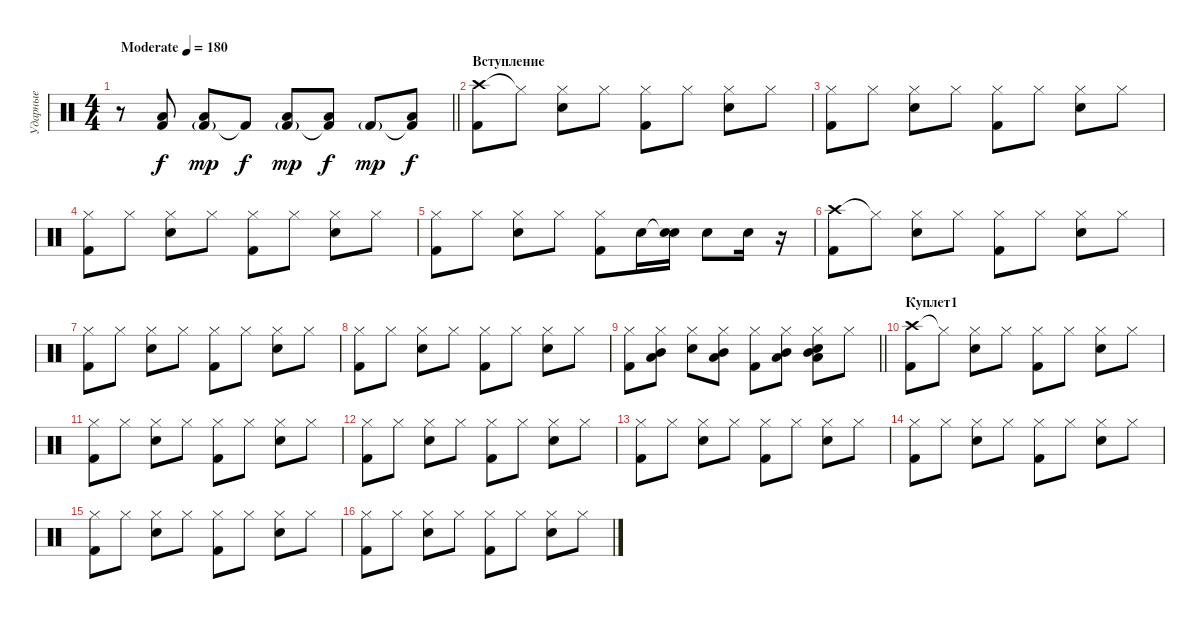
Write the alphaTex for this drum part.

\track ("Ударные" "Ударные") {instrument percussion}
\staff {score}
\articulation defaults
\ts (4 4)
\tempo (180 "Moderate")
\clef neutral
\barLineRight lightlight
\ks c
r.8{dy f} ("Kick (hit) 2" "Low Tom (hit)").8 ("Kick (hit) 2"{g} "Low Tom (hit)").8{dy mp} "Kick (hit) 2"{t}.8{dy f} ("Kick (hit) 2"{g} "Low Tom (hit)").8{dy mp} ("Kick (hit) 2"{t} "Low Tom (hit)").8{dy f} "Kick (hit) 2"{g}.8{dy mp} ("Kick (hit) 2"{t} "Low Tom (hit)").8{dy f} |
\section ("" "Вступление")
("Crash high (hit)" "Kick (hit) 2").8 "Hi-Hat (closed)"{t}.8 ("Hi-Hat (closed)" "Electric Snare (hit)").8 "Hi-Hat (closed)".8 ("Hi-Hat (closed)" "Kick (hit) 2").8 "Hi-Hat (closed)".8 ("Hi-Hat (closed)" "Electric Snare (hit)").8 "Hi-Hat (closed)".8 |
("Hi-Hat (closed)" "Kick (hit) 2").8 "Hi-Hat (closed)".8 ("Hi-Hat (closed)" "Electric Snare (hit)").8 "Hi-Hat (closed)".8 ("Hi-Hat (closed)" "Kick (hit) 2").8 "Hi-Hat (closed)".8 ("Hi-Hat (closed)" "Electric Snare (hit)").8 "Hi-Hat (closed)".8 |
("Hi-Hat (closed)" "Kick (hit) 2").8 "Hi-Hat (closed)".8 ("Hi-Hat (closed)" "Electric Snare (hit)").8 "Hi-Hat (closed)".8 ("Hi-Hat (closed)" "Kick (hit) 2").8 "Hi-Hat (closed)".8 ("Hi-Hat (closed)" "Electric Snare (hit)").8 "Hi-Hat (closed)".8 |
("Hi-Hat (closed)" "Kick (hit) 2").8 "Hi-Hat (closed)".8 ("Hi-Hat (closed)" "Electric Snare (hit)").8 "Hi-Hat (closed)".8 ("Hi-Hat (closed)" "Kick (hit) 2").8 "Electric Snare (hit)".16 ("Snare (hit)"{t} "Electric Snare (hit)").16 "Electric Snare (hit)".8 "Electric Snare (hit)".16 r.16 |
("Crash high (hit)" "Kick (hit) 2").8 "Hi-Hat (closed)"{t}.8 ("Hi-Hat (closed)" "Electric Snare (hit)").8 "Hi-Hat (closed)".8 ("Hi-Hat (closed)" "Kick (hit) 2").8 "Hi-Hat (closed)".8 ("Hi-Hat (closed)" "Electric Snare (hit)").8 "Hi-Hat (closed)".8 |
("Hi-Hat (closed)" "Kick (hit) 2").8 "Hi-Hat (closed)".8 ("Hi-Hat (closed)" "Electric Snare (hit)").8 "Hi-Hat (closed)".8 ("Hi-Hat (closed)" "Kick (hit) 2").8 "Hi-Hat (closed)".8 ("Hi-Hat (closed)" "Electric Snare (hit)").8 "Hi-Hat (closed)".8 |
("Hi-Hat (closed)" "Kick (hit) 2").8 "Hi-Hat (closed)".8 ("Hi-Hat (closed)" "Electric Snare (hit)").8 "Hi-Hat (closed)".8 ("Hi-Hat (closed)" "Kick (hit) 2").8 "Hi-Hat (closed)".8 ("Hi-Hat (closed)" "Electric Snare (hit)").8 "Hi-Hat (closed)".8 |
\barLineRight lightlight
("Hi-Hat (closed)" "Kick (hit) 2").8 ("Hi-Hat (closed)" "Low Tom (hit)" "Mid Tom (hit)").8 ("Hi-Hat (closed)" "Electric Snare (hit)").8 ("Hi-Hat (closed)" "Low Tom (hit)" "Mid Tom (hit)").8 ("Hi-Hat (closed)" "Kick (hit) 2").8 ("Hi-Hat (closed)" "Low Tom (hit)" "Mid Tom (hit)").8 ("Hi-Hat (closed)" "Low Tom (hit)" "Mid Tom (hit)" "Electric Snare (hit)").8 "Hi-Hat (closed)".8 |
\section ("" "Куплет1")
("Crash high (hit)" "Kick (hit) 2").8 "Hi-Hat (closed)"{t}.8 ("Hi-Hat (closed)" "Electric Snare (hit)").8 "Hi-Hat (closed)".8 ("Hi-Hat (closed)" "Kick (hit) 2").8 "Hi-Hat (closed)".8 ("Hi-Hat (closed)" "Electric Snare (hit)").8 "Hi-Hat (closed)".8 |
("Hi-Hat (closed)" "Kick (hit) 2").8 "Hi-Hat (closed)".8 ("Hi-Hat (closed)" "Electric Snare (hit)").8 "Hi-Hat (closed)".8 ("Hi-Hat (closed)" "Kick (hit) 2").8 "Hi-Hat (closed)".8 ("Hi-Hat (closed)" "Electric Snare (hit)").8 "Hi-Hat (closed)".8 |
("Hi-Hat (closed)" "Kick (hit) 2").8 "Hi-Hat (closed)".8 ("Hi-Hat (closed)" "Electric Snare (hit)").8 "Hi-Hat (closed)".8 ("Hi-Hat (closed)" "Kick (hit) 2").8 "Hi-Hat (closed)".8 ("Hi-Hat (closed)" "Electric Snare (hit)").8 "Hi-Hat (closed)".8 |
("Hi-Hat (closed)" "Kick (hit) 2").8 "Hi-Hat (closed)".8 ("Hi-Hat (closed)" "Electric Snare (hit)").8 "Hi-Hat (closed)".8 ("Hi-Hat (closed)" "Kick (hit) 2").8 "Hi-Hat (closed)".8 ("Hi-Hat (closed)" "Electric Snare (hit)").8 "Hi-Hat (closed)".8 |
("Hi-Hat (closed)" "Kick (hit) 2").8 "Hi-Hat (closed)".8 ("Hi-Hat (closed)" "Electric Snare (hit)").8 "Hi-Hat (closed)".8 ("Hi-Hat (closed)" "Kick (hit) 2").8 "Hi-Hat (closed)".8 ("Hi-Hat (closed)" "Electric Snare (hit)").8 "Hi-Hat (closed)".8 |
("Hi-Hat (closed)" "Kick (hit) 2").8 "Hi-Hat (closed)".8 ("Hi-Hat (closed)" "Electric Snare (hit)").8 "Hi-Hat (closed)".8 ("Hi-Hat (closed)" "Kick (hit) 2").8 "Hi-Hat (closed)".8 ("Hi-Hat (closed)" "Electric Snare (hit)").8 "Hi-Hat (closed)".8 |
("Hi-Hat (closed)" "Kick (hit) 2").8 "Hi-Hat (closed)".8 ("Hi-Hat (closed)" "Electric Snare (hit)").8 "Hi-Hat (closed)".8 ("Hi-Hat (closed)" "Kick (hit) 2").8 "Hi-Hat (closed)".8 ("Hi-Hat (closed)" "Electric Snare (hit)").8 "Hi-Hat (closed)".8
